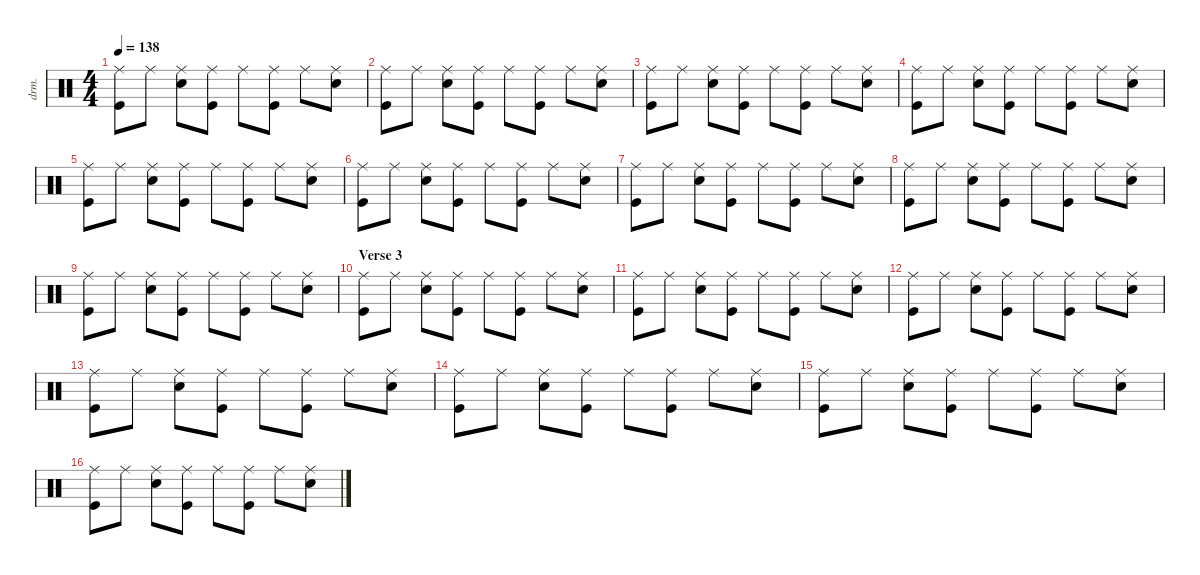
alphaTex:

\defaultSystemsLayout 4
\hideDynamics
\bracketExtendMode nobrackets
\otherSystemsTrackNameOrientation horizontal
\track ("Drums" "drm.") {instrument percussion}
\staff {score}
\articulation defaults
\ts (4 4)
\tempo 138
\clef neutral
\ks c
("Ride (middle)" "Kick (hit)").8{dy f beam Down} "Ride (middle)".8{beam Down} ("Ride (middle)" "Snare (hit) 2").8{beam Down} ("Ride (middle)" "Kick (hit)").8{beam Down} "Ride (middle)".8{beam Down} ("Ride (middle)" "Kick (hit)").8{beam Down} "Ride (middle)".8{beam Down} ("Ride (middle)" "Snare (hit) 2").8{beam Down} |
("Ride (middle)" "Kick (hit)").8{beam Down} "Ride (middle)".8{beam Down} ("Ride (middle)" "Snare (hit) 2").8{beam Down} ("Ride (middle)" "Kick (hit)").8{beam Down} "Ride (middle)".8{beam Down} ("Ride (middle)" "Kick (hit)").8{beam Down} "Ride (middle)".8{beam Down} ("Ride (middle)" "Snare (hit) 2").8{beam Down} |
("Ride (middle)" "Kick (hit)").8{beam Down} "Ride (middle)".8{beam Down} ("Ride (middle)" "Snare (hit) 2").8{beam Down} ("Ride (middle)" "Kick (hit)").8{beam Down} "Ride (middle)".8{beam Down} ("Ride (middle)" "Kick (hit)").8{beam Down} "Ride (middle)".8{beam Down} ("Ride (middle)" "Snare (hit) 2").8{beam Down} |
("Ride (middle)" "Kick (hit)").8{beam Down} "Ride (middle)".8{beam Down} ("Ride (middle)" "Snare (hit) 2").8{beam Down} ("Ride (middle)" "Kick (hit)").8{beam Down} "Ride (middle)".8{beam Down} ("Ride (middle)" "Kick (hit)").8{beam Down} "Ride (middle)".8{beam Down} ("Ride (middle)" "Snare (hit) 2").8{beam Down} |
("Ride (middle)" "Kick (hit)").8{beam Down} "Ride (middle)".8{beam Down} ("Ride (middle)" "Snare (hit) 2").8{beam Down} ("Ride (middle)" "Kick (hit)").8{beam Down} "Ride (middle)".8{beam Down} ("Ride (middle)" "Kick (hit)").8{beam Down} "Ride (middle)".8{beam Down} ("Ride (middle)" "Snare (hit) 2").8{beam Down} |
("Ride (middle)" "Kick (hit)").8{beam Down} "Ride (middle)".8{beam Down} ("Ride (middle)" "Snare (hit) 2").8{beam Down} ("Ride (middle)" "Kick (hit)").8{beam Down} "Ride (middle)".8{beam Down} ("Ride (middle)" "Kick (hit)").8{beam Down} "Ride (middle)".8{beam Down} ("Ride (middle)" "Snare (hit) 2").8{beam Down} |
("Ride (middle)" "Kick (hit)").8{beam Down} "Ride (middle)".8{beam Down} ("Ride (middle)" "Snare (hit) 2").8{beam Down} ("Ride (middle)" "Kick (hit)").8{beam Down} "Ride (middle)".8{beam Down} ("Ride (middle)" "Kick (hit)").8{beam Down} "Ride (middle)".8{beam Down} ("Ride (middle)" "Snare (hit) 2").8{beam Down} |
("Ride (middle)" "Kick (hit)").8{beam Down} "Ride (middle)".8{beam Down} ("Ride (middle)" "Snare (hit) 2").8{beam Down} ("Ride (middle)" "Kick (hit)").8{beam Down} "Ride (middle)".8{beam Down} ("Ride (middle)" "Kick (hit)").8{beam Down} "Ride (middle)".8{beam Down} ("Ride (middle)" "Snare (hit) 2").8{beam Down} |
("Ride (middle)" "Kick (hit)").8{beam Down} "Ride (middle)".8{beam Down} ("Ride (middle)" "Snare (hit) 2").8{beam Down} ("Ride (middle)" "Kick (hit)").8{beam Down} "Ride (middle)".8{beam Down} ("Ride (middle)" "Kick (hit)").8{beam Down} "Ride (middle)".8{beam Down} ("Ride (middle)" "Snare (hit) 2").8{beam Down} |
\section ("" "Verse 3")
("Ride (middle)" "Kick (hit)").8{beam Down} "Ride (middle)".8{beam Down} ("Ride (middle)" "Snare (hit) 2").8{beam Down} ("Ride (middle)" "Kick (hit)").8{beam Down} "Ride (middle)".8{beam Down} ("Ride (middle)" "Kick (hit)").8{beam Down} "Ride (middle)".8{beam Down} ("Ride (middle)" "Snare (hit) 2").8{beam Down} |
("Ride (middle)" "Kick (hit)").8{beam Down} "Ride (middle)".8{beam Down} ("Ride (middle)" "Snare (hit) 2").8{beam Down} ("Ride (middle)" "Kick (hit)").8{beam Down} "Ride (middle)".8{beam Down} ("Ride (middle)" "Kick (hit)").8{beam Down} "Ride (middle)".8{beam Down} ("Ride (middle)" "Snare (hit) 2").8{beam Down} |
("Ride (middle)" "Kick (hit)").8{beam Down} "Ride (middle)".8{beam Down} ("Ride (middle)" "Snare (hit) 2").8{beam Down} ("Ride (middle)" "Kick (hit)").8{beam Down} "Ride (middle)".8{beam Down} ("Ride (middle)" "Kick (hit)").8{beam Down} "Ride (middle)".8{beam Down} ("Ride (middle)" "Snare (hit) 2").8{beam Down} |
("Ride (middle)" "Kick (hit)").8{beam Down} "Ride (middle)".8{beam Down} ("Ride (middle)" "Snare (hit) 2").8{beam Down} ("Ride (middle)" "Kick (hit)").8{beam Down} "Ride (middle)".8{beam Down} ("Ride (middle)" "Kick (hit)").8{beam Down} "Ride (middle)".8{beam Down} ("Ride (middle)" "Snare (hit) 2").8{beam Down} |
("Ride (middle)" "Kick (hit)").8{beam Down} "Ride (middle)".8{beam Down} ("Ride (middle)" "Snare (hit) 2").8{beam Down} ("Ride (middle)" "Kick (hit)").8{beam Down} "Ride (middle)".8{beam Down} ("Ride (middle)" "Kick (hit)").8{beam Down} "Ride (middle)".8{beam Down} ("Ride (middle)" "Snare (hit) 2").8{beam Down} |
("Ride (middle)" "Kick (hit)").8{beam Down} "Ride (middle)".8{beam Down} ("Ride (middle)" "Snare (hit) 2").8{beam Down} ("Ride (middle)" "Kick (hit)").8{beam Down} "Ride (middle)".8{beam Down} ("Ride (middle)" "Kick (hit)").8{beam Down} "Ride (middle)".8{beam Down} ("Ride (middle)" "Snare (hit) 2").8{beam Down} |
("Ride (middle)" "Kick (hit)").8{beam Down} "Ride (middle)".8{beam Down} ("Ride (middle)" "Snare (hit) 2").8{beam Down} ("Ride (middle)" "Kick (hit)").8{beam Down} "Ride (middle)".8{beam Down} ("Ride (middle)" "Kick (hit)").8{beam Down} "Ride (middle)".8{beam Down} ("Ride (middle)" "Snare (hit) 2").8{beam Down}
